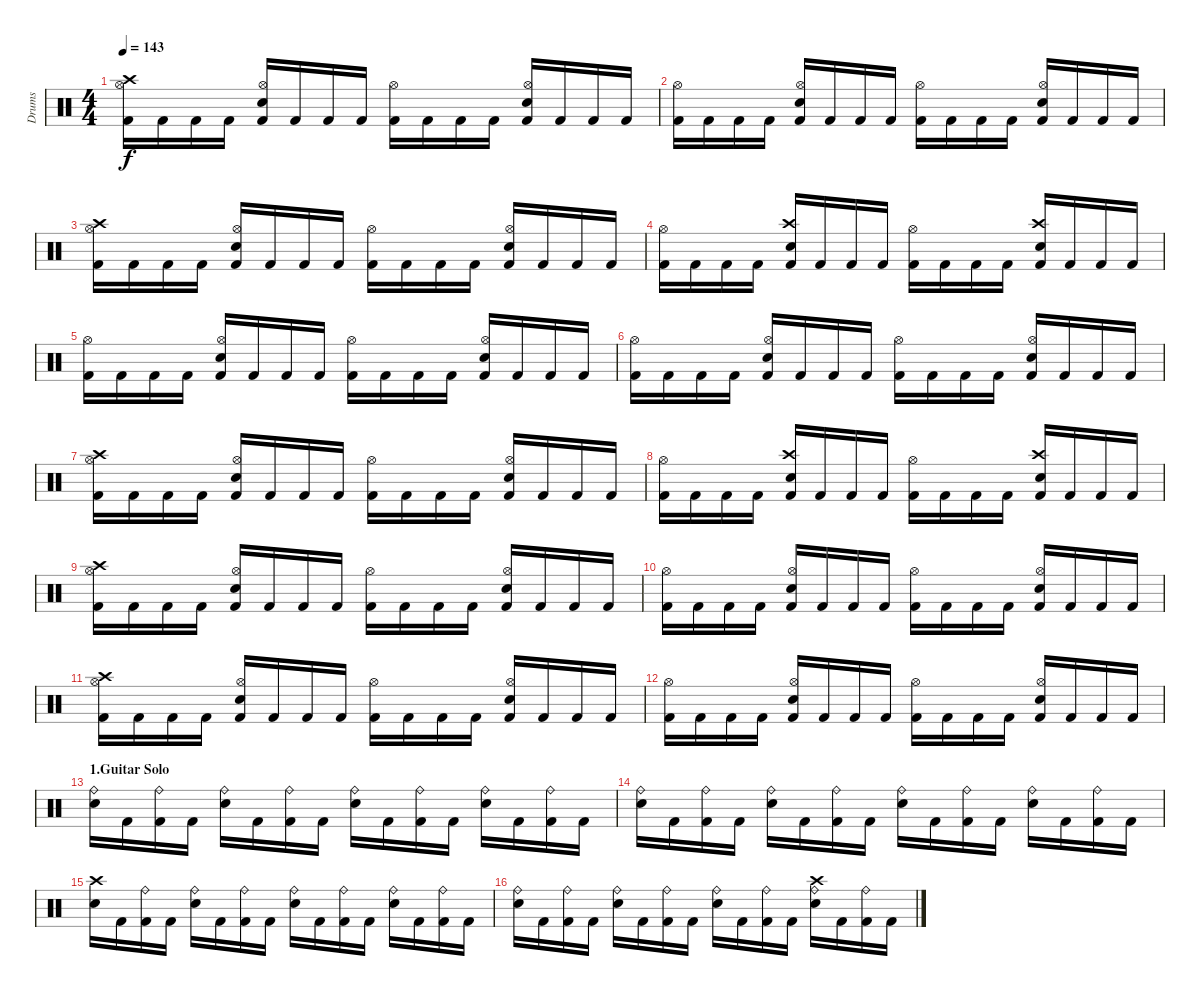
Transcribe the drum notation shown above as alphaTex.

\track ("Drums" "Drums") {instrument percussion}
\staff {score}
\articulation defaults
\ts (4 4)
\tempo 143
\clef neutral
\ks c
("Kick (hit) 2" "Crash high (hit)" "Hi-Hat (open)").16{dy f} "Kick (hit) 2".16 "Kick (hit) 2".16 "Kick (hit) 2".16 ("Snare (hit) 2" "Kick (hit) 2" "Hi-Hat (open)").16 "Kick (hit) 2".16 "Kick (hit) 2".16 "Kick (hit) 2".16 ("Kick (hit) 2" "Hi-Hat (open)").16 "Kick (hit) 2".16 "Kick (hit) 2".16 "Kick (hit) 2".16 ("Snare (hit) 2" "Kick (hit) 2" "Hi-Hat (open)").16 "Kick (hit) 2".16 "Kick (hit) 2".16 "Kick (hit) 2".16 |
("Kick (hit) 2" "Hi-Hat (open)").16 "Kick (hit) 2".16 "Kick (hit) 2".16 "Kick (hit) 2".16 ("Snare (hit) 2" "Kick (hit) 2" "Hi-Hat (open)").16 "Kick (hit) 2".16 "Kick (hit) 2".16 "Kick (hit) 2".16 ("Kick (hit) 2" "Hi-Hat (open)").16 "Kick (hit) 2".16 "Kick (hit) 2".16 "Kick (hit) 2".16 ("Snare (hit) 2" "Kick (hit) 2" "Hi-Hat (open)").16 "Kick (hit) 2".16 "Kick (hit) 2".16 "Kick (hit) 2".16 |
("Kick (hit) 2" "Crash high (hit)" "Hi-Hat (open)").16 "Kick (hit) 2".16 "Kick (hit) 2".16 "Kick (hit) 2".16 ("Snare (hit) 2" "Kick (hit) 2" "Hi-Hat (open)").16 "Kick (hit) 2".16 "Kick (hit) 2".16 "Kick (hit) 2".16 ("Kick (hit) 2" "Hi-Hat (open)").16 "Kick (hit) 2".16 "Kick (hit) 2".16 "Kick (hit) 2".16 ("Snare (hit) 2" "Kick (hit) 2" "Hi-Hat (open)").16 "Kick (hit) 2".16 "Kick (hit) 2".16 "Kick (hit) 2".16 |
("Kick (hit) 2" "Hi-Hat (open)").16 "Kick (hit) 2".16 "Kick (hit) 2".16 "Kick (hit) 2".16 ("Snare (hit) 2" "Kick (hit) 2" "Crash high (hit)").16 "Kick (hit) 2".16 "Kick (hit) 2".16 "Kick (hit) 2".16 ("Kick (hit) 2" "Hi-Hat (open)").16 "Kick (hit) 2".16 "Kick (hit) 2".16 "Kick (hit) 2".16 ("Snare (hit) 2" "Kick (hit) 2" "Crash high (hit)").16 "Kick (hit) 2".16 "Kick (hit) 2".16 "Kick (hit) 2".16 |
("Kick (hit) 2" "Hi-Hat (open)").16 "Kick (hit) 2".16 "Kick (hit) 2".16 "Kick (hit) 2".16 ("Snare (hit) 2" "Kick (hit) 2" "Hi-Hat (open)").16 "Kick (hit) 2".16 "Kick (hit) 2".16 "Kick (hit) 2".16 ("Kick (hit) 2" "Hi-Hat (open)").16 "Kick (hit) 2".16 "Kick (hit) 2".16 "Kick (hit) 2".16 ("Snare (hit) 2" "Kick (hit) 2" "Hi-Hat (open)").16 "Kick (hit) 2".16 "Kick (hit) 2".16 "Kick (hit) 2".16 |
("Kick (hit) 2" "Hi-Hat (open)").16 "Kick (hit) 2".16 "Kick (hit) 2".16 "Kick (hit) 2".16 ("Snare (hit) 2" "Kick (hit) 2" "Hi-Hat (open)").16 "Kick (hit) 2".16 "Kick (hit) 2".16 "Kick (hit) 2".16 ("Kick (hit) 2" "Hi-Hat (open)").16 "Kick (hit) 2".16 "Kick (hit) 2".16 "Kick (hit) 2".16 ("Snare (hit) 2" "Kick (hit) 2" "Hi-Hat (open)").16 "Kick (hit) 2".16 "Kick (hit) 2".16 "Kick (hit) 2".16 |
("Kick (hit) 2" "Crash high (hit)" "Hi-Hat (open)").16 "Kick (hit) 2".16 "Kick (hit) 2".16 "Kick (hit) 2".16 ("Snare (hit) 2" "Kick (hit) 2" "Hi-Hat (open)").16 "Kick (hit) 2".16 "Kick (hit) 2".16 "Kick (hit) 2".16 ("Kick (hit) 2" "Hi-Hat (open)").16 "Kick (hit) 2".16 "Kick (hit) 2".16 "Kick (hit) 2".16 ("Snare (hit) 2" "Kick (hit) 2" "Hi-Hat (open)").16 "Kick (hit) 2".16 "Kick (hit) 2".16 "Kick (hit) 2".16 |
("Kick (hit) 2" "Hi-Hat (open)").16 "Kick (hit) 2".16 "Kick (hit) 2".16 "Kick (hit) 2".16 ("Snare (hit) 2" "Kick (hit) 2" "Crash high (hit)").16 "Kick (hit) 2".16 "Kick (hit) 2".16 "Kick (hit) 2".16 ("Kick (hit) 2" "Hi-Hat (open)").16 "Kick (hit) 2".16 "Kick (hit) 2".16 "Kick (hit) 2".16 ("Snare (hit) 2" "Kick (hit) 2" "Crash high (hit)").16 "Kick (hit) 2".16 "Kick (hit) 2".16 "Kick (hit) 2".16 |
("Kick (hit) 2" "Crash high (hit)" "Hi-Hat (open)").16 "Kick (hit) 2".16 "Kick (hit) 2".16 "Kick (hit) 2".16 ("Snare (hit) 2" "Kick (hit) 2" "Hi-Hat (open)").16 "Kick (hit) 2".16 "Kick (hit) 2".16 "Kick (hit) 2".16 ("Kick (hit) 2" "Hi-Hat (open)").16 "Kick (hit) 2".16 "Kick (hit) 2".16 "Kick (hit) 2".16 ("Snare (hit) 2" "Kick (hit) 2" "Hi-Hat (open)").16 "Kick (hit) 2".16 "Kick (hit) 2".16 "Kick (hit) 2".16 |
("Kick (hit) 2" "Hi-Hat (open)").16 "Kick (hit) 2".16 "Kick (hit) 2".16 "Kick (hit) 2".16 ("Snare (hit) 2" "Kick (hit) 2" "Hi-Hat (open)").16 "Kick (hit) 2".16 "Kick (hit) 2".16 "Kick (hit) 2".16 ("Kick (hit) 2" "Hi-Hat (open)").16 "Kick (hit) 2".16 "Kick (hit) 2".16 "Kick (hit) 2".16 ("Snare (hit) 2" "Kick (hit) 2" "Hi-Hat (open)").16 "Kick (hit) 2".16 "Kick (hit) 2".16 "Kick (hit) 2".16 |
("Kick (hit) 2" "Crash high (hit)" "Hi-Hat (open)").16 "Kick (hit) 2".16 "Kick (hit) 2".16 "Kick (hit) 2".16 ("Snare (hit) 2" "Kick (hit) 2" "Hi-Hat (open)").16 "Kick (hit) 2".16 "Kick (hit) 2".16 "Kick (hit) 2".16 ("Kick (hit) 2" "Hi-Hat (open)").16 "Kick (hit) 2".16 "Kick (hit) 2".16 "Kick (hit) 2".16 ("Snare (hit) 2" "Kick (hit) 2" "Hi-Hat (open)").16 "Kick (hit) 2".16 "Kick (hit) 2".16 "Kick (hit) 2".16 |
("Kick (hit) 2" "Hi-Hat (open)").16 "Kick (hit) 2".16 "Kick (hit) 2".16 "Kick (hit) 2".16 ("Snare (hit) 2" "Kick (hit) 2" "Hi-Hat (open)").16 "Kick (hit) 2".16 "Kick (hit) 2".16 "Kick (hit) 2".16 ("Kick (hit) 2" "Hi-Hat (open)").16 "Kick (hit) 2".16 "Kick (hit) 2".16 "Kick (hit) 2".16 ("Snare (hit) 2" "Kick (hit) 2" "Hi-Hat (open)").16 "Kick (hit) 2".16 "Kick (hit) 2".16 "Kick (hit) 2".16 |
\section ("" "1.Guitar Solo")
("Snare (hit) 2" "Ride (bell)").16 "Kick (hit) 2".16 ("Kick (hit) 2" "Ride (bell)").16 "Kick (hit) 2".16 ("Snare (hit) 2" "Ride (bell)").16 "Kick (hit) 2".16 ("Kick (hit) 2" "Ride (bell)").16 "Kick (hit) 2".16 ("Snare (hit) 2" "Ride (bell)").16 "Kick (hit) 2".16 ("Kick (hit) 2" "Ride (bell)").16 "Kick (hit) 2".16 ("Snare (hit) 2" "Ride (bell)").16 "Kick (hit) 2".16 ("Kick (hit) 2" "Ride (bell)").16 "Kick (hit) 2".16 |
("Snare (hit) 2" "Ride (bell)").16 "Kick (hit) 2".16 ("Kick (hit) 2" "Ride (bell)").16 "Kick (hit) 2".16 ("Snare (hit) 2" "Ride (bell)").16 "Kick (hit) 2".16 ("Kick (hit) 2" "Ride (bell)").16 "Kick (hit) 2".16 ("Snare (hit) 2" "Ride (bell)").16 "Kick (hit) 2".16 ("Kick (hit) 2" "Ride (bell)").16 "Kick (hit) 2".16 ("Snare (hit) 2" "Ride (bell)").16 "Kick (hit) 2".16 ("Kick (hit) 2" "Ride (bell)").16 "Kick (hit) 2".16 |
("Snare (hit) 2" "Crash high (hit)").16 "Kick (hit) 2".16 ("Kick (hit) 2" "Ride (bell)").16 "Kick (hit) 2".16 ("Snare (hit) 2" "Ride (bell)").16 "Kick (hit) 2".16 ("Kick (hit) 2" "Ride (bell)").16 "Kick (hit) 2".16 ("Snare (hit) 2" "Ride (bell)").16 "Kick (hit) 2".16 ("Kick (hit) 2" "Ride (bell)").16 "Kick (hit) 2".16 ("Snare (hit) 2" "Ride (bell)").16 "Kick (hit) 2".16 ("Kick (hit) 2" "Ride (bell)").16 "Kick (hit) 2".16 |
("Snare (hit) 2" "Ride (bell)").16 "Kick (hit) 2".16 ("Kick (hit) 2" "Ride (bell)").16 "Kick (hit) 2".16 ("Snare (hit) 2" "Ride (bell)").16 "Kick (hit) 2".16 ("Kick (hit) 2" "Ride (bell)").16 "Kick (hit) 2".16 ("Snare (hit) 2" "Ride (bell)").16 "Kick (hit) 2".16 ("Kick (hit) 2" "Ride (bell)").16 "Kick (hit) 2".16 ("Snare (hit) 2" "Ride (bell)" "Crash high (hit)").16 "Kick (hit) 2".16 ("Kick (hit) 2" "Ride (bell)").16 "Kick (hit) 2".16
